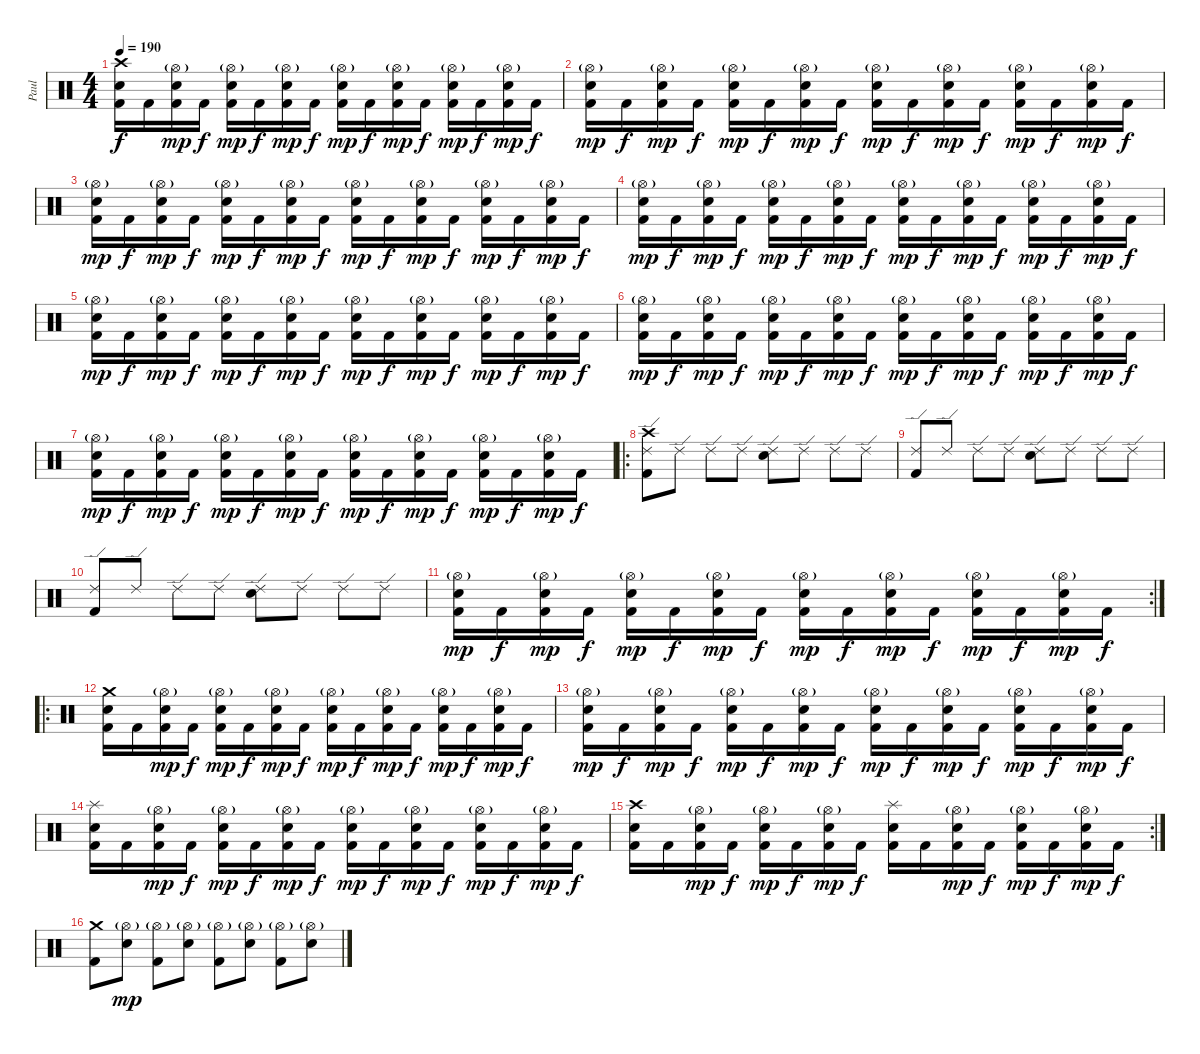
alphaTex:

\track ("Paul" "Paul") {instrument percussion}
\staff {score}
\articulation defaults
\ts (4 4)
\tempo 190
\clef neutral
\ks c
("Crash high (hit)" "Electric Snare (hit)" "Kick (hit) 2").16{dy f} "Kick (hit) 2".16 ("Hi-Hat (open)"{g} "Electric Snare (hit)" "Kick (hit) 2").16{dy mp} "Kick (hit) 2".16{dy f} ("Hi-Hat (open)"{g} "Electric Snare (hit)" "Kick (hit) 2").16{dy mp} "Kick (hit) 2".16{dy f} ("Hi-Hat (open)"{g} "Electric Snare (hit)" "Kick (hit) 2").16{dy mp} "Kick (hit) 2".16{dy f} ("Hi-Hat (open)"{g} "Electric Snare (hit)" "Kick (hit) 2").16{dy mp} "Kick (hit) 2".16{dy f} ("Hi-Hat (open)"{g} "Electric Snare (hit)" "Kick (hit) 2").16{dy mp} "Kick (hit) 2".16{dy f} ("Hi-Hat (open)"{g} "Electric Snare (hit)" "Kick (hit) 2").16{dy mp} "Kick (hit) 2".16{dy f} ("Hi-Hat (open)"{g} "Electric Snare (hit)" "Kick (hit) 2").16{dy mp} "Kick (hit) 2".16{dy f} |
("Hi-Hat (open)"{g} "Electric Snare (hit)" "Kick (hit) 2").16{dy mp} "Kick (hit) 2".16{dy f} ("Hi-Hat (open)"{g} "Electric Snare (hit)" "Kick (hit) 2").16{dy mp} "Kick (hit) 2".16{dy f} ("Hi-Hat (open)"{g} "Electric Snare (hit)" "Kick (hit) 2").16{dy mp} "Kick (hit) 2".16{dy f} ("Hi-Hat (open)"{g} "Electric Snare (hit)" "Kick (hit) 2").16{dy mp} "Kick (hit) 2".16{dy f} ("Hi-Hat (open)"{g} "Electric Snare (hit)" "Kick (hit) 2").16{dy mp} "Kick (hit) 2".16{dy f} ("Hi-Hat (open)"{g} "Electric Snare (hit)" "Kick (hit) 2").16{dy mp} "Kick (hit) 2".16{dy f} ("Hi-Hat (open)"{g} "Electric Snare (hit)" "Kick (hit) 2").16{dy mp} "Kick (hit) 2".16{dy f} ("Hi-Hat (open)"{g} "Electric Snare (hit)" "Kick (hit) 2").16{dy mp} "Kick (hit) 2".16{dy f} |
("Hi-Hat (open)"{g} "Electric Snare (hit)" "Kick (hit) 2").16{dy mp} "Kick (hit) 2".16{dy f} ("Hi-Hat (open)"{g} "Electric Snare (hit)" "Kick (hit) 2").16{dy mp} "Kick (hit) 2".16{dy f} ("Hi-Hat (open)"{g} "Electric Snare (hit)" "Kick (hit) 2").16{dy mp} "Kick (hit) 2".16{dy f} ("Hi-Hat (open)"{g} "Electric Snare (hit)" "Kick (hit) 2").16{dy mp} "Kick (hit) 2".16{dy f} ("Hi-Hat (open)"{g} "Electric Snare (hit)" "Kick (hit) 2").16{dy mp} "Kick (hit) 2".16{dy f} ("Hi-Hat (open)"{g} "Electric Snare (hit)" "Kick (hit) 2").16{dy mp} "Kick (hit) 2".16{dy f} ("Hi-Hat (open)"{g} "Electric Snare (hit)" "Kick (hit) 2").16{dy mp} "Kick (hit) 2".16{dy f} ("Hi-Hat (open)"{g} "Electric Snare (hit)" "Kick (hit) 2").16{dy mp} "Kick (hit) 2".16{dy f} |
("Hi-Hat (open)"{g} "Electric Snare (hit)" "Kick (hit) 2").16{dy mp} "Kick (hit) 2".16{dy f} ("Hi-Hat (open)"{g} "Electric Snare (hit)" "Kick (hit) 2").16{dy mp} "Kick (hit) 2".16{dy f} ("Hi-Hat (open)"{g} "Electric Snare (hit)" "Kick (hit) 2").16{dy mp} "Kick (hit) 2".16{dy f} ("Hi-Hat (open)"{g} "Electric Snare (hit)" "Kick (hit) 2").16{dy mp} "Kick (hit) 2".16{dy f} ("Hi-Hat (open)"{g} "Electric Snare (hit)" "Kick (hit) 2").16{dy mp} "Kick (hit) 2".16{dy f} ("Hi-Hat (open)"{g} "Electric Snare (hit)" "Kick (hit) 2").16{dy mp} "Kick (hit) 2".16{dy f} ("Hi-Hat (open)"{g} "Electric Snare (hit)" "Kick (hit) 2").16{dy mp} "Kick (hit) 2".16{dy f} ("Hi-Hat (open)"{g} "Electric Snare (hit)" "Kick (hit) 2").16{dy mp} "Kick (hit) 2".16{dy f} |
("Hi-Hat (open)"{g} "Electric Snare (hit)" "Kick (hit) 2").16{dy mp} "Kick (hit) 2".16{dy f} ("Hi-Hat (open)"{g} "Electric Snare (hit)" "Kick (hit) 2").16{dy mp} "Kick (hit) 2".16{dy f} ("Hi-Hat (open)"{g} "Electric Snare (hit)" "Kick (hit) 2").16{dy mp} "Kick (hit) 2".16{dy f} ("Hi-Hat (open)"{g} "Electric Snare (hit)" "Kick (hit) 2").16{dy mp} "Kick (hit) 2".16{dy f} ("Hi-Hat (open)"{g} "Electric Snare (hit)" "Kick (hit) 2").16{dy mp} "Kick (hit) 2".16{dy f} ("Hi-Hat (open)"{g} "Electric Snare (hit)" "Kick (hit) 2").16{dy mp} "Kick (hit) 2".16{dy f} ("Hi-Hat (open)"{g} "Electric Snare (hit)" "Kick (hit) 2").16{dy mp} "Kick (hit) 2".16{dy f} ("Hi-Hat (open)"{g} "Electric Snare (hit)" "Kick (hit) 2").16{dy mp} "Kick (hit) 2".16{dy f} |
("Hi-Hat (open)"{g} "Electric Snare (hit)" "Kick (hit) 2").16{dy mp} "Kick (hit) 2".16{dy f} ("Hi-Hat (open)"{g} "Electric Snare (hit)" "Kick (hit) 2").16{dy mp} "Kick (hit) 2".16{dy f} ("Hi-Hat (open)"{g} "Electric Snare (hit)" "Kick (hit) 2").16{dy mp} "Kick (hit) 2".16{dy f} ("Hi-Hat (open)"{g} "Electric Snare (hit)" "Kick (hit) 2").16{dy mp} "Kick (hit) 2".16{dy f} ("Hi-Hat (open)"{g} "Electric Snare (hit)" "Kick (hit) 2").16{dy mp} "Kick (hit) 2".16{dy f} ("Hi-Hat (open)"{g} "Electric Snare (hit)" "Kick (hit) 2").16{dy mp} "Kick (hit) 2".16{dy f} ("Hi-Hat (open)"{g} "Electric Snare (hit)" "Kick (hit) 2").16{dy mp} "Kick (hit) 2".16{dy f} ("Hi-Hat (open)"{g} "Electric Snare (hit)" "Kick (hit) 2").16{dy mp} "Kick (hit) 2".16{dy f} |
("Hi-Hat (open)"{g} "Electric Snare (hit)" "Kick (hit) 2").16{dy mp} "Kick (hit) 2".16{dy f} ("Hi-Hat (open)"{g} "Electric Snare (hit)" "Kick (hit) 2").16{dy mp} "Kick (hit) 2".16{dy f} ("Hi-Hat (open)"{g} "Electric Snare (hit)" "Kick (hit) 2").16{dy mp} "Kick (hit) 2".16{dy f} ("Hi-Hat (open)"{g} "Electric Snare (hit)" "Kick (hit) 2").16{dy mp} "Kick (hit) 2".16{dy f} ("Hi-Hat (open)"{g} "Electric Snare (hit)" "Kick (hit) 2").16{dy mp} "Kick (hit) 2".16{dy f} ("Hi-Hat (open)"{g} "Electric Snare (hit)" "Kick (hit) 2").16{dy mp} "Kick (hit) 2".16{dy f} ("Hi-Hat (open)"{g} "Electric Snare (hit)" "Kick (hit) 2").16{dy mp} "Kick (hit) 2".16{dy f} ("Hi-Hat (open)"{g} "Electric Snare (hit)" "Kick (hit) 2").16{dy mp} "Kick (hit) 2".16{dy f} |
\ro
("Crash high (hit)" "Ride (edge) 2" "Kick (hit) 2").8 "Ride (edge) 2".8 "Ride (edge) 2".8 "Ride (edge) 2".8 ("Electric Snare (hit)" "Ride (edge) 2").8 "Ride (edge) 2".8 "Ride (edge) 2".8 "Ride (edge) 2".8 |
("Ride (edge) 2" "Kick (hit) 2").8 "Ride (edge) 2".8 "Ride (edge) 2".8 "Ride (edge) 2".8 ("Electric Snare (hit)" "Ride (edge) 2").8 "Ride (edge) 2".8 "Ride (edge) 2".8 "Ride (edge) 2".8 |
("Ride (edge) 2" "Kick (hit) 2").8 "Ride (edge) 2".8 "Ride (edge) 2".8 "Ride (edge) 2".8 ("Electric Snare (hit)" "Ride (edge) 2").8 "Ride (edge) 2".8 "Ride (edge) 2".8 "Ride (edge) 2".8 |
\rc 2
("Electric Snare (hit)" "Hi-Hat (open)"{g} "Kick (hit) 2").16{dy mp} "Kick (hit) 2".16{dy f} ("Electric Snare (hit)" "Hi-Hat (open)"{g} "Kick (hit) 2").16{dy mp} "Kick (hit) 2".16{dy f} ("Electric Snare (hit)" "Hi-Hat (open)"{g} "Kick (hit) 2").16{dy mp} "Kick (hit) 2".16{dy f} ("Electric Snare (hit)" "Hi-Hat (open)"{g} "Kick (hit) 2").16{dy mp} "Kick (hit) 2".16{dy f} ("Electric Snare (hit)" "Hi-Hat (open)"{g} "Kick (hit) 2").16{dy mp} "Kick (hit) 2".16{dy f} ("Electric Snare (hit)" "Hi-Hat (open)"{g} "Kick (hit) 2").16{dy mp} "Kick (hit) 2".16{dy f} ("Electric Snare (hit)" "Hi-Hat (open)"{g} "Kick (hit) 2").16{dy mp} "Kick (hit) 2".16{dy f} ("Electric Snare (hit)" "Hi-Hat (open)"{g} "Kick (hit) 2").16{dy mp} "Kick (hit) 2".16{dy f} |
\ro
("Electric Snare (hit)" "Crash medium (hit)" "Kick (hit) 2").16 "Kick (hit) 2".16 ("Electric Snare (hit)" "Hi-Hat (open)"{g} "Kick (hit) 2").16{dy mp} "Kick (hit) 2".16{dy f} ("Electric Snare (hit)" "Hi-Hat (open)"{g} "Kick (hit) 2").16{dy mp} "Kick (hit) 2".16{dy f} ("Electric Snare (hit)" "Hi-Hat (open)"{g} "Kick (hit) 2").16{dy mp} "Kick (hit) 2".16{dy f} ("Electric Snare (hit)" "Hi-Hat (open)"{g} "Kick (hit) 2").16{dy mp} "Kick (hit) 2".16{dy f} ("Electric Snare (hit)" "Hi-Hat (open)"{g} "Kick (hit) 2").16{dy mp} "Kick (hit) 2".16{dy f} ("Electric Snare (hit)" "Hi-Hat (open)"{g} "Kick (hit) 2").16{dy mp} "Kick (hit) 2".16{dy f} ("Electric Snare (hit)" "Hi-Hat (open)"{g} "Kick (hit) 2").16{dy mp} "Kick (hit) 2".16{dy f} |
("Electric Snare (hit)" "Hi-Hat (open)"{g} "Kick (hit) 2").16{dy mp} "Kick (hit) 2".16{dy f} ("Electric Snare (hit)" "Hi-Hat (open)"{g} "Kick (hit) 2").16{dy mp} "Kick (hit) 2".16{dy f} ("Electric Snare (hit)" "Hi-Hat (open)"{g} "Kick (hit) 2").16{dy mp} "Kick (hit) 2".16{dy f} ("Electric Snare (hit)" "Hi-Hat (open)"{g} "Kick (hit) 2").16{dy mp} "Kick (hit) 2".16{dy f} ("Electric Snare (hit)" "Hi-Hat (open)"{g} "Kick (hit) 2").16{dy mp} "Kick (hit) 2".16{dy f} ("Electric Snare (hit)" "Hi-Hat (open)"{g} "Kick (hit) 2").16{dy mp} "Kick (hit) 2".16{dy f} ("Electric Snare (hit)" "Hi-Hat (open)"{g} "Kick (hit) 2").16{dy mp} "Kick (hit) 2".16{dy f} ("Electric Snare (hit)" "Hi-Hat (open)"{g} "Kick (hit) 2").16{dy mp} "Kick (hit) 2".16{dy f} |
("Electric Snare (hit)" "Splash (hit)" "Kick (hit) 2").16 "Kick (hit) 2".16 ("Electric Snare (hit)" "Hi-Hat (open)"{g} "Kick (hit) 2").16{dy mp} "Kick (hit) 2".16{dy f} ("Electric Snare (hit)" "Hi-Hat (open)"{g} "Kick (hit) 2").16{dy mp} "Kick (hit) 2".16{dy f} ("Electric Snare (hit)" "Hi-Hat (open)"{g} "Kick (hit) 2").16{dy mp} "Kick (hit) 2".16{dy f} ("Electric Snare (hit)" "Hi-Hat (open)"{g} "Kick (hit) 2").16{dy mp} "Kick (hit) 2".16{dy f} ("Electric Snare (hit)" "Hi-Hat (open)"{g} "Kick (hit) 2").16{dy mp} "Kick (hit) 2".16{dy f} ("Electric Snare (hit)" "Hi-Hat (open)"{g} "Kick (hit) 2").16{dy mp} "Kick (hit) 2".16{dy f} ("Electric Snare (hit)" "Hi-Hat (open)"{g} "Kick (hit) 2").16{dy mp} "Kick (hit) 2".16{dy f} |
\rc 2
("Electric Snare (hit)" "Crash high (hit)" "Kick (hit) 2").16 "Kick (hit) 2".16 ("Electric Snare (hit)" "Hi-Hat (open)"{g} "Kick (hit) 2").16{dy mp} "Kick (hit) 2".16{dy f} ("Electric Snare (hit)" "Hi-Hat (open)"{g} "Kick (hit) 2").16{dy mp} "Kick (hit) 2".16{dy f} ("Electric Snare (hit)" "Hi-Hat (open)"{g} "Kick (hit) 2").16{dy mp} "Kick (hit) 2".16{dy f} ("Electric Snare (hit)" "Splash (hit)" "Kick (hit) 2").16 "Kick (hit) 2".16 ("Electric Snare (hit)" "Hi-Hat (open)"{g} "Kick (hit) 2").16{dy mp} "Kick (hit) 2".16{dy f} ("Electric Snare (hit)" "Hi-Hat (open)"{g} "Kick (hit) 2").16{dy mp} "Kick (hit) 2".16{dy f} ("Electric Snare (hit)" "Hi-Hat (open)"{g} "Kick (hit) 2").16{dy mp} "Kick (hit) 2".16{dy f} |
("Crash medium (hit)" "Kick (hit) 2").8 ("Hi-Hat (open)"{g} "Electric Snare (hit)").8{dy mp} ("Hi-Hat (open)"{g} "Kick (hit) 2").8 ("Hi-Hat (open)"{g} "Electric Snare (hit)").8 ("Hi-Hat (open)"{g} "Kick (hit) 2").8 ("Hi-Hat (open)"{g} "Electric Snare (hit)").8 ("Hi-Hat (open)"{g} "Kick (hit) 2").8 ("Hi-Hat (open)"{g} "Electric Snare (hit)").8
